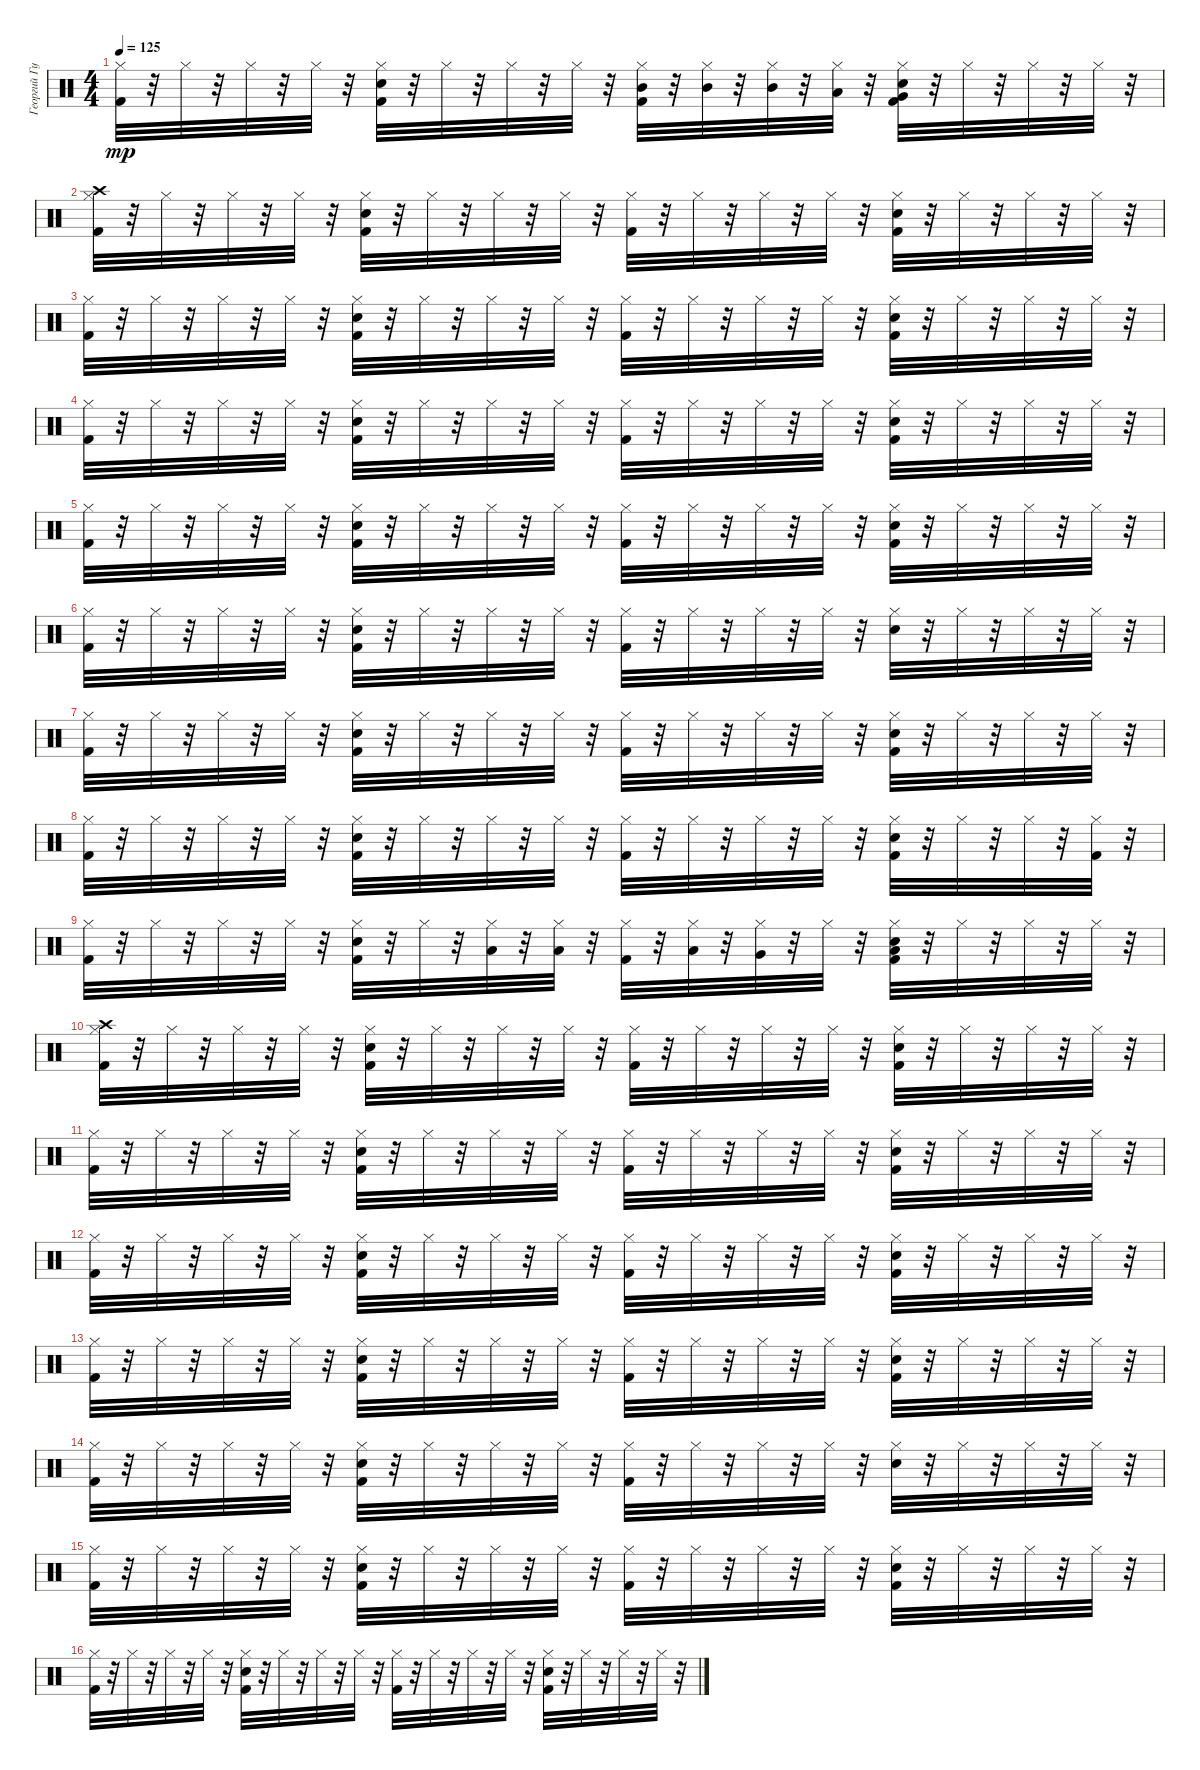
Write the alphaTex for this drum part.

\track ("Георгий Гурьянов" "Георгий Гу") {instrument percussion}
\staff {score}
\articulation defaults
\ts (4 4)
\tempo 125
\clef neutral
\ks c
("Kick (hit) 2" "Hi-Hat (closed)").32{dy mp} r.32 "Hi-Hat (closed)".32 r.32 "Hi-Hat (closed)".32 r.32 "Hi-Hat (closed)".32 r.32 ("Kick (hit) 2" "Snare (hit) 2" "Hi-Hat (closed)").32 r.32 "Hi-Hat (closed)".32 r.32 "Hi-Hat (closed)".32 r.32 "Hi-Hat (closed)".32 r.32 ("Mid Tom (hit)" "Kick (hit) 2" "Hi-Hat (closed)").32 r.32 ("Mid Tom (hit)" "Hi-Hat (closed)").32 r.32 ("Mid Tom (hit)" "Hi-Hat (closed)").32 r.32 ("Low Tom (hit)" "Hi-Hat (closed)").32 r.32 ("Very Low Tom (hit)" "Kick (hit) 2" "Snare (hit) 2" "Hi-Hat (closed)").32 r.32 "Hi-Hat (closed)".32 r.32 "Hi-Hat (closed)".32 r.32 "Hi-Hat (closed)".32 r.32 |
("Hi-Hat (closed)" "Kick (hit) 2" "Crash high (hit)").32 r.32 "Hi-Hat (closed)".32 r.32 "Hi-Hat (closed)".32 r.32 "Hi-Hat (closed)".32 r.32 ("Kick (hit) 2" "Hi-Hat (closed)" "Snare (hit) 2").32 r.32 "Hi-Hat (closed)".32 r.32 "Hi-Hat (closed)".32 r.32 "Hi-Hat (closed)".32 r.32 ("Hi-Hat (closed)" "Kick (hit) 2").32 r.32 "Hi-Hat (closed)".32 r.32 "Hi-Hat (closed)".32 r.32 "Hi-Hat (closed)".32 r.32 ("Kick (hit) 2" "Hi-Hat (closed)" "Snare (hit) 2").32 r.32 "Hi-Hat (closed)".32 r.32 "Hi-Hat (closed)".32 r.32 "Hi-Hat (closed)".32 r.32 |
("Kick (hit) 2" "Hi-Hat (closed)").32 r.32 "Hi-Hat (closed)".32 r.32 "Hi-Hat (closed)".32 r.32 "Hi-Hat (closed)".32 r.32 ("Kick (hit) 2" "Snare (hit) 2" "Hi-Hat (closed)").32 r.32 "Hi-Hat (closed)".32 r.32 "Hi-Hat (closed)".32 r.32 "Hi-Hat (closed)".32 r.32 ("Kick (hit) 2" "Hi-Hat (closed)").32 r.32 "Hi-Hat (closed)".32 r.32 "Hi-Hat (closed)".32 r.32 "Hi-Hat (closed)".32 r.32 ("Kick (hit) 2" "Snare (hit) 2" "Hi-Hat (closed)").32 r.32 "Hi-Hat (closed)".32 r.32 "Hi-Hat (closed)".32 r.32 "Hi-Hat (closed)".32 r.32 |
("Kick (hit) 2" "Hi-Hat (closed)").32 r.32 "Hi-Hat (closed)".32 r.32 "Hi-Hat (closed)".32 r.32 "Hi-Hat (closed)".32 r.32 ("Kick (hit) 2" "Snare (hit) 2" "Hi-Hat (closed)").32 r.32 "Hi-Hat (closed)".32 r.32 "Hi-Hat (closed)".32 r.32 "Hi-Hat (closed)".32 r.32 ("Kick (hit) 2" "Hi-Hat (closed)").32 r.32 "Hi-Hat (closed)".32 r.32 "Hi-Hat (closed)".32 r.32 "Hi-Hat (closed)".32 r.32 ("Kick (hit) 2" "Snare (hit) 2" "Hi-Hat (closed)").32 r.32 "Hi-Hat (closed)".32 r.32 "Hi-Hat (closed)".32 r.32 "Hi-Hat (closed)".32 r.32 |
("Kick (hit) 2" "Hi-Hat (closed)").32 r.32 "Hi-Hat (closed)".32 r.32 "Hi-Hat (closed)".32 r.32 "Hi-Hat (closed)".32 r.32 ("Kick (hit) 2" "Snare (hit) 2" "Hi-Hat (closed)").32 r.32 "Hi-Hat (closed)".32 r.32 "Hi-Hat (closed)".32 r.32 "Hi-Hat (closed)".32 r.32 ("Kick (hit) 2" "Hi-Hat (closed)").32 r.32 "Hi-Hat (closed)".32 r.32 "Hi-Hat (closed)".32 r.32 "Hi-Hat (closed)".32 r.32 ("Kick (hit) 2" "Snare (hit) 2" "Hi-Hat (closed)").32 r.32 "Hi-Hat (closed)".32 r.32 "Hi-Hat (closed)".32 r.32 "Hi-Hat (closed)".32 r.32 |
("Kick (hit) 2" "Hi-Hat (closed)").32 r.32 "Hi-Hat (closed)".32 r.32 "Hi-Hat (closed)".32 r.32 "Hi-Hat (closed)".32 r.32 ("Kick (hit) 2" "Snare (hit) 2" "Hi-Hat (closed)").32 r.32 "Hi-Hat (closed)".32 r.32 "Hi-Hat (closed)".32 r.32 "Hi-Hat (closed)".32 r.32 ("Kick (hit) 2" "Hi-Hat (closed)").32 r.32 "Hi-Hat (closed)".32 r.32 "Hi-Hat (closed)".32 r.32 "Hi-Hat (closed)".32 r.32 ("Snare (hit) 2" "Hi-Hat (closed)").32 r.32 "Hi-Hat (closed)".32 r.32 "Hi-Hat (closed)".32 r.32 "Hi-Hat (closed)".32 r.32 |
("Kick (hit) 2" "Hi-Hat (closed)").32 r.32 "Hi-Hat (closed)".32 r.32 "Hi-Hat (closed)".32 r.32 "Hi-Hat (closed)".32 r.32 ("Kick (hit) 2" "Snare (hit) 2" "Hi-Hat (closed)").32 r.32 "Hi-Hat (closed)".32 r.32 "Hi-Hat (closed)".32 r.32 "Hi-Hat (closed)".32 r.32 ("Kick (hit) 2" "Hi-Hat (closed)").32 r.32 "Hi-Hat (closed)".32 r.32 "Hi-Hat (closed)".32 r.32 "Hi-Hat (closed)".32 r.32 ("Kick (hit) 2" "Snare (hit) 2" "Hi-Hat (closed)").32 r.32 "Hi-Hat (closed)".32 r.32 "Hi-Hat (closed)".32 r.32 "Hi-Hat (closed)".32 r.32 |
("Kick (hit) 2" "Hi-Hat (closed)").32 r.32 "Hi-Hat (closed)".32 r.32 "Hi-Hat (closed)".32 r.32 "Hi-Hat (closed)".32 r.32 ("Kick (hit) 2" "Snare (hit) 2" "Hi-Hat (closed)").32 r.32 "Hi-Hat (closed)".32 r.32 "Hi-Hat (closed)".32 r.32 "Hi-Hat (closed)".32 r.32 ("Kick (hit) 2" "Hi-Hat (closed)").32 r.32 "Hi-Hat (closed)".32 r.32 "Hi-Hat (closed)".32 r.32 "Hi-Hat (closed)".32 r.32 ("Kick (hit) 2" "Snare (hit) 2" "Hi-Hat (closed)").32 r.32 "Hi-Hat (closed)".32 r.32 "Hi-Hat (closed)".32 r.32 ("Kick (hit) 2" "Hi-Hat (closed)").32 r.32 |
("Kick (hit) 2" "Hi-Hat (closed)").32 r.32 "Hi-Hat (closed)".32 r.32 "Hi-Hat (closed)".32 r.32 "Hi-Hat (closed)".32 r.32 ("Kick (hit) 2" "Snare (hit) 2" "Hi-Hat (closed)").32 r.32 "Hi-Hat (closed)".32 r.32 ("Low Tom (hit)" "Hi-Hat (closed)").32 r.32 ("Low Tom (hit)" "Hi-Hat (closed)").32 r.32 ("Kick (hit) 2" "Hi-Hat (closed)").32 r.32 ("Low Tom (hit)" "Hi-Hat (closed)").32 r.32 ("Very Low Tom (hit)" "Hi-Hat (closed)").32 r.32 "Hi-Hat (closed)".32 r.32 ("Kick (hit) 2" "Low Floor Tom (hit)" "Snare (hit) 2" "Hi-Hat (closed)").32 r.32 "Hi-Hat (closed)".32 r.32 "Hi-Hat (closed)".32 r.32 "Hi-Hat (closed)".32 r.32 |
("Hi-Hat (closed)" "Kick (hit) 2" "Crash high (hit)").32 r.32 "Hi-Hat (closed)".32 r.32 "Hi-Hat (closed)".32 r.32 "Hi-Hat (closed)".32 r.32 ("Kick (hit) 2" "Hi-Hat (closed)" "Snare (hit) 2").32 r.32 "Hi-Hat (closed)".32 r.32 "Hi-Hat (closed)".32 r.32 "Hi-Hat (closed)".32 r.32 ("Hi-Hat (closed)" "Kick (hit) 2").32 r.32 "Hi-Hat (closed)".32 r.32 "Hi-Hat (closed)".32 r.32 "Hi-Hat (closed)".32 r.32 ("Kick (hit) 2" "Hi-Hat (closed)" "Snare (hit) 2").32 r.32 "Hi-Hat (closed)".32 r.32 "Hi-Hat (closed)".32 r.32 "Hi-Hat (closed)".32 r.32 |
("Kick (hit) 2" "Hi-Hat (closed)").32 r.32 "Hi-Hat (closed)".32 r.32 "Hi-Hat (closed)".32 r.32 "Hi-Hat (closed)".32 r.32 ("Kick (hit) 2" "Snare (hit) 2" "Hi-Hat (closed)").32 r.32 "Hi-Hat (closed)".32 r.32 "Hi-Hat (closed)".32 r.32 "Hi-Hat (closed)".32 r.32 ("Kick (hit) 2" "Hi-Hat (closed)").32 r.32 "Hi-Hat (closed)".32 r.32 "Hi-Hat (closed)".32 r.32 "Hi-Hat (closed)".32 r.32 ("Kick (hit) 2" "Snare (hit) 2" "Hi-Hat (closed)").32 r.32 "Hi-Hat (closed)".32 r.32 "Hi-Hat (closed)".32 r.32 "Hi-Hat (closed)".32 r.32 |
("Kick (hit) 2" "Hi-Hat (closed)").32 r.32 "Hi-Hat (closed)".32 r.32 "Hi-Hat (closed)".32 r.32 "Hi-Hat (closed)".32 r.32 ("Kick (hit) 2" "Snare (hit) 2" "Hi-Hat (closed)").32 r.32 "Hi-Hat (closed)".32 r.32 "Hi-Hat (closed)".32 r.32 "Hi-Hat (closed)".32 r.32 ("Kick (hit) 2" "Hi-Hat (closed)").32 r.32 "Hi-Hat (closed)".32 r.32 "Hi-Hat (closed)".32 r.32 "Hi-Hat (closed)".32 r.32 ("Kick (hit) 2" "Snare (hit) 2" "Hi-Hat (closed)").32 r.32 "Hi-Hat (closed)".32 r.32 "Hi-Hat (closed)".32 r.32 "Hi-Hat (closed)".32 r.32 |
("Kick (hit) 2" "Hi-Hat (closed)").32 r.32 "Hi-Hat (closed)".32 r.32 "Hi-Hat (closed)".32 r.32 "Hi-Hat (closed)".32 r.32 ("Kick (hit) 2" "Snare (hit) 2" "Hi-Hat (closed)").32 r.32 "Hi-Hat (closed)".32 r.32 "Hi-Hat (closed)".32 r.32 "Hi-Hat (closed)".32 r.32 ("Kick (hit) 2" "Hi-Hat (closed)").32 r.32 "Hi-Hat (closed)".32 r.32 "Hi-Hat (closed)".32 r.32 "Hi-Hat (closed)".32 r.32 ("Kick (hit) 2" "Snare (hit) 2" "Hi-Hat (closed)").32 r.32 "Hi-Hat (closed)".32 r.32 "Hi-Hat (closed)".32 r.32 "Hi-Hat (closed)".32 r.32 |
("Kick (hit) 2" "Hi-Hat (closed)").32 r.32 "Hi-Hat (closed)".32 r.32 "Hi-Hat (closed)".32 r.32 "Hi-Hat (closed)".32 r.32 ("Kick (hit) 2" "Snare (hit) 2" "Hi-Hat (closed)").32 r.32 "Hi-Hat (closed)".32 r.32 "Hi-Hat (closed)".32 r.32 "Hi-Hat (closed)".32 r.32 ("Kick (hit) 2" "Hi-Hat (closed)").32 r.32 "Hi-Hat (closed)".32 r.32 "Hi-Hat (closed)".32 r.32 "Hi-Hat (closed)".32 r.32 ("Snare (hit) 2" "Hi-Hat (closed)").32 r.32 "Hi-Hat (closed)".32 r.32 "Hi-Hat (closed)".32 r.32 "Hi-Hat (closed)".32 r.32 |
("Kick (hit) 2" "Hi-Hat (closed)").32 r.32 "Hi-Hat (closed)".32 r.32 "Hi-Hat (closed)".32 r.32 "Hi-Hat (closed)".32 r.32 ("Kick (hit) 2" "Snare (hit) 2" "Hi-Hat (closed)").32 r.32 "Hi-Hat (closed)".32 r.32 "Hi-Hat (closed)".32 r.32 "Hi-Hat (closed)".32 r.32 ("Kick (hit) 2" "Hi-Hat (closed)").32 r.32 "Hi-Hat (closed)".32 r.32 "Hi-Hat (closed)".32 r.32 "Hi-Hat (closed)".32 r.32 ("Kick (hit) 2" "Snare (hit) 2" "Hi-Hat (closed)").32 r.32 "Hi-Hat (closed)".32 r.32 "Hi-Hat (closed)".32 r.32 "Hi-Hat (closed)".32 r.32 |
("Kick (hit) 2" "Hi-Hat (closed)").32 r.32 "Hi-Hat (closed)".32 r.32 "Hi-Hat (closed)".32 r.32 "Hi-Hat (closed)".32 r.32 ("Kick (hit) 2" "Snare (hit) 2" "Hi-Hat (closed)").32 r.32 "Hi-Hat (closed)".32 r.32 "Hi-Hat (closed)".32 r.32 "Hi-Hat (closed)".32 r.32 ("Kick (hit) 2" "Hi-Hat (closed)").32 r.32 "Hi-Hat (closed)".32 r.32 "Hi-Hat (closed)".32 r.32 "Hi-Hat (closed)".32 r.32 ("Kick (hit) 2" "Snare (hit) 2" "Hi-Hat (closed)").32 r.32 "Hi-Hat (closed)".32 r.32 "Hi-Hat (closed)".32 r.32 "Hi-Hat (closed)".32 r.32
